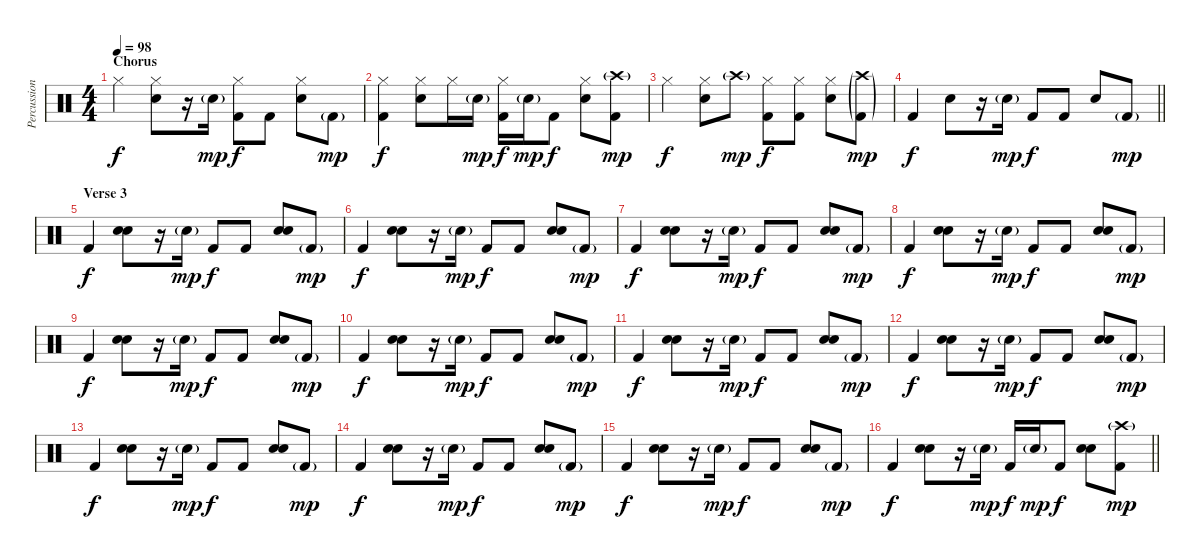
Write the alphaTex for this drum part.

\track ("Percussion" "Percussion") {instrument percussion}
\staff {score}
\articulation defaults
\ts (4 4)
\section ("" "Chorus")
\tempo 98
\clef neutral
\ks c "Hi-Hat (closed)".4{dy f}
("Hi-Hat (closed)" "Snare (hit) 2").8 r.16 "Snare (hit) 2"{g}.16{dy mp} ("Hi-Hat (closed)" "Kick (hit) 2").8{dy f} "Kick (hit) 2".8 ("Hi-Hat (closed)" "Snare (hit) 2").8 "Kick (hit) 2"{g}.8{dy mp} |
("Hi-Hat (closed)" "Kick (hit) 2").4{dy f} ("Hi-Hat (closed)" "Snare (hit) 2").8 "Hi-Hat (closed)".16 "Snare (hit) 2"{g}.16{dy mp} ("Hi-Hat (closed)" "Kick (hit) 2").16{dy f} "Snare (hit) 2"{g}.16{dy mp} "Kick (hit) 2".8{dy f} ("Hi-Hat (closed)" "Snare (hit) 2").8 ("Crash high (hit)"{g} "Kick (hit) 2").8{dy mp} |
"Hi-Hat (closed)".4{dy f} ("Hi-Hat (closed)" "Snare (hit) 2").8 "Crash high (hit)"{g}.8{dy mp} ("Hi-Hat (closed)" "Kick (hit) 2").8{dy f} ("Hi-Hat (closed)" "Kick (hit) 2").8 ("Hi-Hat (closed)" "Snare (hit) 2").8 ("Crash high (hit)"{g} "Kick (hit) 2"{g}).8{dy mp} |
\barLineRight lightlight "Kick (hit) 2".4{dy f} "Snare (hit) 2".8
r.16 "Snare (hit) 2"{g}.16{dy mp} "Kick (hit) 2".8{dy f} "Kick (hit) 2".8 "Snare (hit) 2".8 "Kick (hit) 2"{g}.8{dy mp} |
\section ("" "Verse 3")
"Kick (hit) 2".4{dy f} ("Hand Clap (hit)" "Snare (hit) 2").8 r.16 "Snare (hit) 2"{g}.16{dy mp} "Kick (hit) 2".8{dy f} "Kick (hit) 2".8 ("Hand Clap (hit)" "Snare (hit) 2").8 "Kick (hit) 2"{g}.8{dy mp} |
"Kick (hit) 2".4{dy f} ("Hand Clap (hit)" "Snare (hit) 2").8 r.16 "Snare (hit) 2"{g}.16{dy mp} "Kick (hit) 2".8{dy f} "Kick (hit) 2".8 ("Hand Clap (hit)" "Snare (hit) 2").8 "Kick (hit) 2"{g}.8{dy mp} |
"Kick (hit) 2".4{dy f} ("Hand Clap (hit)" "Snare (hit) 2").8 r.16 "Snare (hit) 2"{g}.16{dy mp} "Kick (hit) 2".8{dy f} "Kick (hit) 2".8 ("Hand Clap (hit)" "Snare (hit) 2").8 "Kick (hit) 2"{g}.8{dy mp} |
"Kick (hit) 2".4{dy f} ("Hand Clap (hit)" "Snare (hit) 2").8 r.16 "Snare (hit) 2"{g}.16{dy mp} "Kick (hit) 2".8{dy f} "Kick (hit) 2".8 ("Hand Clap (hit)" "Snare (hit) 2").8 "Kick (hit) 2"{g}.8{dy mp} |
"Kick (hit) 2".4{dy f} ("Hand Clap (hit)" "Snare (hit) 2").8 r.16 "Snare (hit) 2"{g}.16{dy mp} "Kick (hit) 2".8{dy f} "Kick (hit) 2".8 ("Hand Clap (hit)" "Snare (hit) 2").8 "Kick (hit) 2"{g}.8{dy mp} |
"Kick (hit) 2".4{dy f} ("Hand Clap (hit)" "Snare (hit) 2").8 r.16 "Snare (hit) 2"{g}.16{dy mp} "Kick (hit) 2".8{dy f} "Kick (hit) 2".8 ("Hand Clap (hit)" "Snare (hit) 2").8 "Kick (hit) 2"{g}.8{dy mp} |
"Kick (hit) 2".4{dy f} ("Hand Clap (hit)" "Snare (hit) 2").8 r.16 "Snare (hit) 2"{g}.16{dy mp} "Kick (hit) 2".8{dy f} "Kick (hit) 2".8 ("Hand Clap (hit)" "Snare (hit) 2").8 "Kick (hit) 2"{g}.8{dy mp} |
"Kick (hit) 2".4{dy f} ("Hand Clap (hit)" "Snare (hit) 2").8 r.16 "Snare (hit) 2"{g}.16{dy mp} "Kick (hit) 2".8{dy f} "Kick (hit) 2".8 ("Hand Clap (hit)" "Snare (hit) 2").8 "Kick (hit) 2"{g}.8{dy mp} |
"Kick (hit) 2".4{dy f} ("Hand Clap (hit)" "Snare (hit) 2").8 r.16 "Snare (hit) 2"{g}.16{dy mp} "Kick (hit) 2".8{dy f} "Kick (hit) 2".8 ("Hand Clap (hit)" "Snare (hit) 2").8 "Kick (hit) 2"{g}.8{dy mp} |
"Kick (hit) 2".4{dy f} ("Hand Clap (hit)" "Snare (hit) 2").8 r.16 "Snare (hit) 2"{g}.16{dy mp} "Kick (hit) 2".8{dy f} "Kick (hit) 2".8 ("Hand Clap (hit)" "Snare (hit) 2").8 "Kick (hit) 2"{g}.8{dy mp} |
"Kick (hit) 2".4{dy f} ("Hand Clap (hit)" "Snare (hit) 2").8 r.16 "Snare (hit) 2"{g}.16{dy mp} "Kick (hit) 2".8{dy f} "Kick (hit) 2".8 ("Hand Clap (hit)" "Snare (hit) 2").8 "Kick (hit) 2"{g}.8{dy mp} |
\barLineRight lightlight "Kick (hit) 2".4{dy f}
("Hand Clap (hit)" "Snare (hit) 2").8 r.16 "Snare (hit) 2"{g}.16{dy mp} "Kick (hit) 2".16{dy f} "Snare (hit) 2"{g}.16{dy mp} "Kick (hit) 2".8{dy f} ("Hand Clap (hit)" "Snare (hit) 2").8 ("Crash high (hit)"{g} "Kick (hit) 2").8{dy mp}
